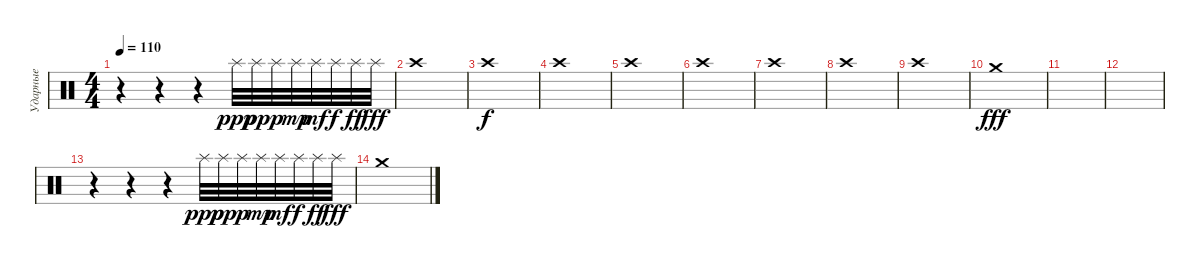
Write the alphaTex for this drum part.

\track ("Ударные" "Ударные") {instrument percussion}
\staff {score}
\articulation defaults
\ts (4 4)
\tempo 110
\clef neutral
\ks c
r.4{dy fff} r.4 r.4 "Splash (hit)".32{dy ppp} "Splash (hit)".32{dy pp} "Splash (hit)".32{dy p} "Splash (hit)".32{dy mp} "Splash (hit)".32{dy mf} "Splash (hit)".32{dy f} "Splash (hit)".32{dy ff} "Splash (hit)".32{dy fff} |
"Crash high (hit)".1 |
"Crash high (hit)".1{dy f} |
"Crash high (hit)".1 |
"Crash high (hit)".1 |
"Crash high (hit)".1 |
"Crash high (hit)".1 |
"Crash high (hit)".1 |
"Crash high (hit)".1 |
"Crash medium (hit)".1{dy fff} |
|
|
r.4 r.4 r.4 "Splash (hit)".32{dy ppp} "Splash (hit)".32{dy pp} "Splash (hit)".32{dy p} "Splash (hit)".32{dy mp} "Splash (hit)".32{dy mf} "Splash (hit)".32{dy f} "Splash (hit)".32{dy ff} "Splash (hit)".32{dy fff} |
"Crash medium (hit)".1
